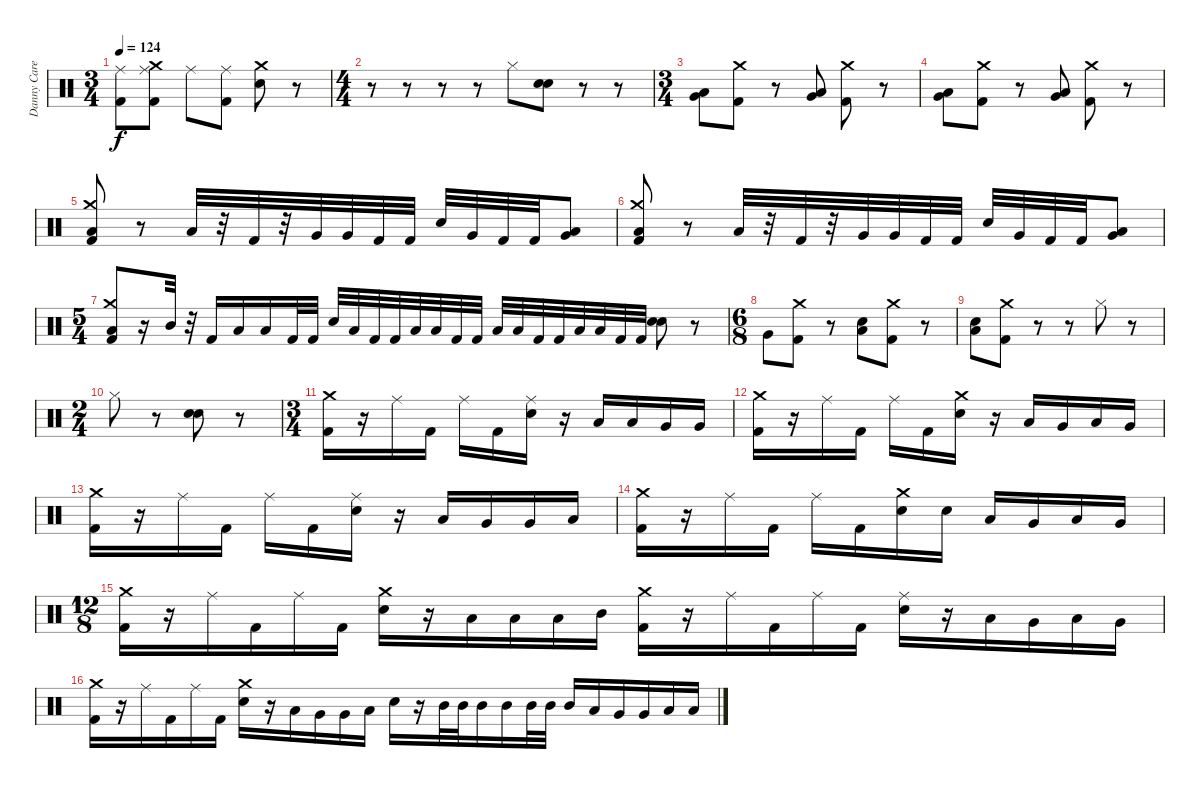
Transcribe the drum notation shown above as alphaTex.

\track ("Danny Carey" "Danny Care") {instrument percussion}
\staff {score}
\articulation defaults
\ts (3 4)
\tempo 124
\clef neutral
\ks c
("Ride (middle)" "Kick (hit) 2").8{dy f} ("Crash medium (hit)" "Ride (middle)" "Kick (hit) 2").8 "Ride (middle)".8 ("Ride (middle)" "Kick (hit) 2").8 ("Crash medium (hit)" "Electric Snare (hit)").8 r.8 |
\ts (4 4)
r.8 r.8 r.8 r.8 "Hi-Hat (closed)".8 ("Electric Snare (hit)" "Electric Snare (hit)").8 r.8 r.8 |
\ts (3 4)
("Very Low Tom (hit)" "Low Floor Tom (hit)").8 ("Crash medium (hit)" "Kick (hit) 2").8 r.8 ("Very Low Tom (hit)" "Low Floor Tom (hit)").8 ("Crash medium (hit)" "Kick (hit) 2").8 r.8 |
("Very Low Tom (hit)" "Low Floor Tom (hit)").8 ("Crash medium (hit)" "Kick (hit) 2").8 r.8 ("Very Low Tom (hit)" "Low Floor Tom (hit)").8 ("Crash medium (hit)" "Kick (hit) 2").8 r.8 |
("Crash medium (hit)" "Low Floor Tom (hit)" "Kick (hit) 2").8 r.8 "Low Tom (hit)".32 r.32 "Kick (hit) 2".32 r.32 "Very Low Tom (hit)".32 "Very Low Tom (hit)".32 "Kick (hit) 2".32 "Kick (hit) 2".32 "Electric Snare (hit)".32 "Very Low Tom (hit)".32 "Kick (hit) 2".32 "Kick (hit) 2".32 ("Very Low Tom (hit)" "Low Floor Tom (hit)").8 |
("Crash medium (hit)" "Low Floor Tom (hit)" "Kick (hit) 2").8 r.8 "Low Tom (hit)".32 r.32 "Kick (hit) 2".32 r.32 "Very Low Tom (hit)".32 "Very Low Tom (hit)".32 "Kick (hit) 2".32 "Kick (hit) 2".32 "Electric Snare (hit)".32 "Very Low Tom (hit)".32 "Kick (hit) 2".32 "Kick (hit) 2".32 ("Very Low Tom (hit)" "Low Floor Tom (hit)").8 |
\ts (5 4)
("Crash medium (hit)" "Low Floor Tom (hit)" "Kick (hit) 2").8 r.16 "Mid Tom (hit)".32 r.32 "Kick (hit) 2".16 "Low Floor Tom (hit)".16 "Low Floor Tom (hit)".16 "Kick (hit) 2".32 "Kick (hit) 2".32 "Electric Snare (hit)".32 "Low Floor Tom (hit)".32 "Kick (hit) 2".32 "Kick (hit) 2".32 "Low Floor Tom (hit)".32 "Low Floor Tom (hit)".32 "Kick (hit) 2".32 "Kick (hit) 2".32 "Low Floor Tom (hit)".32 "Low Floor Tom (hit)".32 "Kick (hit) 2".32 "Kick (hit) 2".32 "Low Floor Tom (hit)".32 "Low Floor Tom (hit)".32 "Kick (hit) 2".32 "Kick (hit) 2".32 ("Electric Snare (hit)" "Electric Snare (hit)").8 r.8 |
\ts (6 8)
"Very Low Tom (hit)".8 ("Crash medium (hit)" "Kick (hit) 2").8 r.8 ("Electric Snare (hit)" "Low Floor Tom (hit)").8 ("Crash medium (hit)" "Kick (hit) 2").8 r.8 |
("Electric Snare (hit)" "Low Floor Tom (hit)").8 ("Crash medium (hit)" "Kick (hit) 2").8 r.8 r.8 "Hi-Hat (closed)".8 r.8 |
\ts (2 4)
"Hi-Hat (closed)".8 r.8 ("Electric Snare (hit)" "Electric Snare (hit)").8 r.8 |
\ts (3 4)
("Crash medium (hit)" "Kick (hit) 2").16 r.16 "Ride (middle)".16 "Kick (hit) 2".16 "Ride (middle)".16 "Kick (hit) 2".16 ("Ride (middle)" "Electric Snare (hit)").16 r.16 "Low Tom (hit)".16 "Low Tom (hit)".16 "Very Low Tom (hit)".16 "Very Low Tom (hit)".16 |
("Crash medium (hit)" "Kick (hit) 2").16 r.16 "Ride (middle)".16 "Kick (hit) 2".16 "Ride (middle)".16 "Kick (hit) 2".16 ("Crash medium (hit)" "Electric Snare (hit)").16 r.16 "Low Tom (hit)".16 "Very Low Tom (hit)".16 "Low Tom (hit)".16 "Very Low Tom (hit)".16 |
("Crash medium (hit)" "Kick (hit) 2").16 r.16 "Ride (middle)".16 "Kick (hit) 2".16 "Ride (middle)".16 "Kick (hit) 2".16 ("Ride (middle)" "Electric Snare (hit)").16 r.16 "Low Tom (hit)".16 "Very Low Tom (hit)".16 "Very Low Tom (hit)".16 "Low Floor Tom (hit)".16 |
("Crash medium (hit)" "Kick (hit) 2").16 r.16 "Ride (middle)".16 "Kick (hit) 2".16 "Ride (middle)".16 "Kick (hit) 2".16 ("Crash medium (hit)" "Electric Snare (hit)").16 "Electric Snare (hit)".16 "Low Tom (hit)".16 "Very Low Tom (hit)".16 "Low Tom (hit)".16 "Very Low Tom (hit)".16 |
\ts (12 8)
("Crash medium (hit)" "Kick (hit) 2").16 r.16 "Ride (middle)".16 "Kick (hit) 2".16 "Ride (middle)".16 "Kick (hit) 2".16 ("Crash medium (hit)" "Electric Snare (hit)").16 r.16 "Low Tom (hit)".16 "Low Tom (hit)".16 "Low Tom (hit)".16 "Mid Tom (hit)".16 ("Crash medium (hit)" "Kick (hit) 2").16 r.16 "Ride (middle)".16 "Kick (hit) 2".16 "Ride (middle)".16 "Kick (hit) 2".16 ("Ride (middle)" "Electric Snare (hit)").16 r.16 "Low Tom (hit)".16 "Very Low Tom (hit)".16 "Low Tom (hit)".16 "Very Low Tom (hit)".16 |
("Crash medium (hit)" "Kick (hit) 2").16 r.16 "Ride (middle)".16 "Kick (hit) 2".16 "Ride (middle)".16 "Kick (hit) 2".16 ("Crash medium (hit)" "Electric Snare (hit)").16 r.16 "Low Tom (hit)".16 "Very Low Tom (hit)".16 "Very Low Tom (hit)".16 "Low Floor Tom (hit)".16 "Electric Snare (hit)".16 r.16 "Mid Tom (hit)".32 "Mid Tom (hit)".32 "Mid Tom (hit)".16 "Mid Tom (hit)".16 "Mid Tom (hit)".32 "Mid Tom (hit)".32 "Mid Tom (hit)".16 "Low Tom (hit)".16 "Very Low Tom (hit)".16 "Very Low Tom (hit)".16 "Low Floor Tom (hit)".16 "Low Floor Tom (hit)".16
